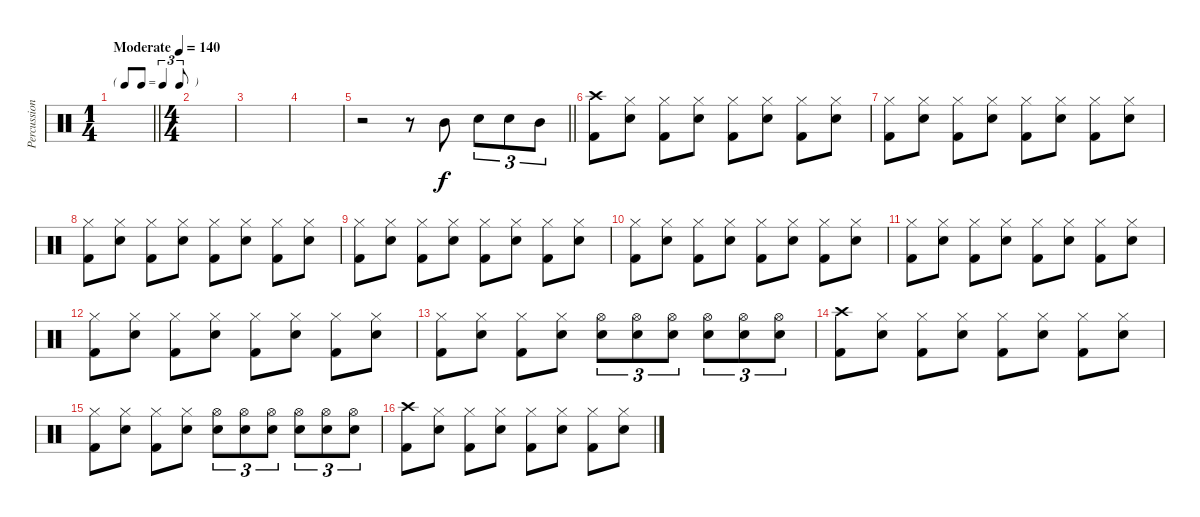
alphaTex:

\track ("Percussion" "Percussion") {instrument percussion}
\staff {score}
\articulation defaults
\ts (1 4)
\tf triplet8th
\tempo (140 "Moderate")
\clef neutral
\barLineRight lightlight
\ks c
|
\ts (4 4)
|
|
|
\barLineRight lightlight
r.2 r.8 "Mid Tom (hit)".8 "Snare (hit) 2".8{tu (3 2)} "Snare (hit) 2".8{tu (3 2)} "Mid Tom (hit)".8{tu (3 2)} |
("Crash high (hit)" "Kick (hit) 2").8 ("Hi-Hat (closed)" "Snare (hit) 2").8 ("Hi-Hat (closed)" "Kick (hit) 2").8 ("Hi-Hat (closed)" "Snare (hit) 2").8 ("Hi-Hat (closed)" "Kick (hit) 2").8 ("Hi-Hat (closed)" "Snare (hit) 2").8 ("Hi-Hat (closed)" "Kick (hit) 2").8 ("Hi-Hat (closed)" "Snare (hit) 2").8 |
("Hi-Hat (closed)" "Kick (hit) 2").8 ("Hi-Hat (closed)" "Snare (hit) 2").8 ("Hi-Hat (closed)" "Kick (hit) 2").8 ("Hi-Hat (closed)" "Snare (hit) 2").8 ("Hi-Hat (closed)" "Kick (hit) 2").8 ("Hi-Hat (closed)" "Snare (hit) 2").8 ("Hi-Hat (closed)" "Kick (hit) 2").8 ("Hi-Hat (closed)" "Snare (hit) 2").8 |
("Hi-Hat (closed)" "Kick (hit) 2").8 ("Hi-Hat (closed)" "Snare (hit) 2").8 ("Hi-Hat (closed)" "Kick (hit) 2").8 ("Hi-Hat (closed)" "Snare (hit) 2").8 ("Hi-Hat (closed)" "Kick (hit) 2").8 ("Hi-Hat (closed)" "Snare (hit) 2").8 ("Hi-Hat (closed)" "Kick (hit) 2").8 ("Hi-Hat (closed)" "Snare (hit) 2").8 |
("Hi-Hat (closed)" "Kick (hit) 2").8 ("Hi-Hat (closed)" "Snare (hit) 2").8 ("Hi-Hat (closed)" "Kick (hit) 2").8 ("Hi-Hat (closed)" "Snare (hit) 2").8 ("Hi-Hat (closed)" "Kick (hit) 2").8 ("Hi-Hat (closed)" "Snare (hit) 2").8 ("Hi-Hat (closed)" "Kick (hit) 2").8 ("Hi-Hat (closed)" "Snare (hit) 2").8 |
("Hi-Hat (closed)" "Kick (hit) 2").8 ("Hi-Hat (closed)" "Snare (hit) 2").8 ("Hi-Hat (closed)" "Kick (hit) 2").8 ("Hi-Hat (closed)" "Snare (hit) 2").8 ("Hi-Hat (closed)" "Kick (hit) 2").8 ("Hi-Hat (closed)" "Snare (hit) 2").8 ("Hi-Hat (closed)" "Kick (hit) 2").8 ("Hi-Hat (closed)" "Snare (hit) 2").8 |
("Hi-Hat (closed)" "Kick (hit) 2").8 ("Hi-Hat (closed)" "Snare (hit) 2").8 ("Hi-Hat (closed)" "Kick (hit) 2").8 ("Hi-Hat (closed)" "Snare (hit) 2").8 ("Hi-Hat (closed)" "Kick (hit) 2").8 ("Hi-Hat (closed)" "Snare (hit) 2").8 ("Hi-Hat (closed)" "Kick (hit) 2").8 ("Hi-Hat (closed)" "Snare (hit) 2").8 |
("Hi-Hat (closed)" "Kick (hit) 2").8 ("Hi-Hat (closed)" "Snare (hit) 2").8 ("Hi-Hat (closed)" "Kick (hit) 2").8 ("Hi-Hat (closed)" "Snare (hit) 2").8 ("Hi-Hat (closed)" "Kick (hit) 2").8 ("Hi-Hat (closed)" "Snare (hit) 2").8 ("Hi-Hat (closed)" "Kick (hit) 2").8 ("Hi-Hat (closed)" "Snare (hit) 2").8 |
("Hi-Hat (closed)" "Kick (hit) 2").8 ("Hi-Hat (closed)" "Snare (hit) 2").8 ("Hi-Hat (closed)" "Kick (hit) 2").8 ("Hi-Hat (closed)" "Snare (hit) 2").8 ("Hi-Hat (open)" "Snare (hit) 2").8{tu (3 2)} ("Hi-Hat (open)" "Snare (hit) 2").8{tu (3 2)} ("Hi-Hat (open)" "Snare (hit) 2").8{tu (3 2)} ("Hi-Hat (open)" "Snare (hit) 2").8{tu (3 2)} ("Hi-Hat (open)" "Snare (hit) 2").8{tu (3 2)} ("Hi-Hat (open)" "Snare (hit) 2").8{tu (3 2)} |
("Crash high (hit)" "Kick (hit) 2").8 ("Hi-Hat (closed)" "Snare (hit) 2").8 ("Hi-Hat (closed)" "Kick (hit) 2").8 ("Hi-Hat (closed)" "Snare (hit) 2").8 ("Hi-Hat (closed)" "Kick (hit) 2").8 ("Hi-Hat (closed)" "Snare (hit) 2").8 ("Hi-Hat (closed)" "Kick (hit) 2").8 ("Hi-Hat (closed)" "Snare (hit) 2").8 |
("Hi-Hat (closed)" "Kick (hit) 2").8 ("Hi-Hat (closed)" "Snare (hit) 2").8 ("Hi-Hat (closed)" "Kick (hit) 2").8 ("Hi-Hat (closed)" "Snare (hit) 2").8 ("Hi-Hat (open)" "Snare (hit) 2").8{tu (3 2)} ("Hi-Hat (open)" "Snare (hit) 2").8{tu (3 2)} ("Hi-Hat (open)" "Snare (hit) 2").8{tu (3 2)} ("Hi-Hat (open)" "Snare (hit) 2").8{tu (3 2)} ("Hi-Hat (open)" "Snare (hit) 2").8{tu (3 2)} ("Hi-Hat (open)" "Snare (hit) 2").8{tu (3 2)} |
("Crash high (hit)" "Kick (hit) 2").8 ("Hi-Hat (closed)" "Snare (hit) 2").8 ("Hi-Hat (closed)" "Kick (hit) 2").8 ("Hi-Hat (closed)" "Snare (hit) 2").8 ("Hi-Hat (closed)" "Kick (hit) 2").8 ("Hi-Hat (closed)" "Snare (hit) 2").8 ("Hi-Hat (closed)" "Kick (hit) 2").8 ("Hi-Hat (closed)" "Snare (hit) 2").8
